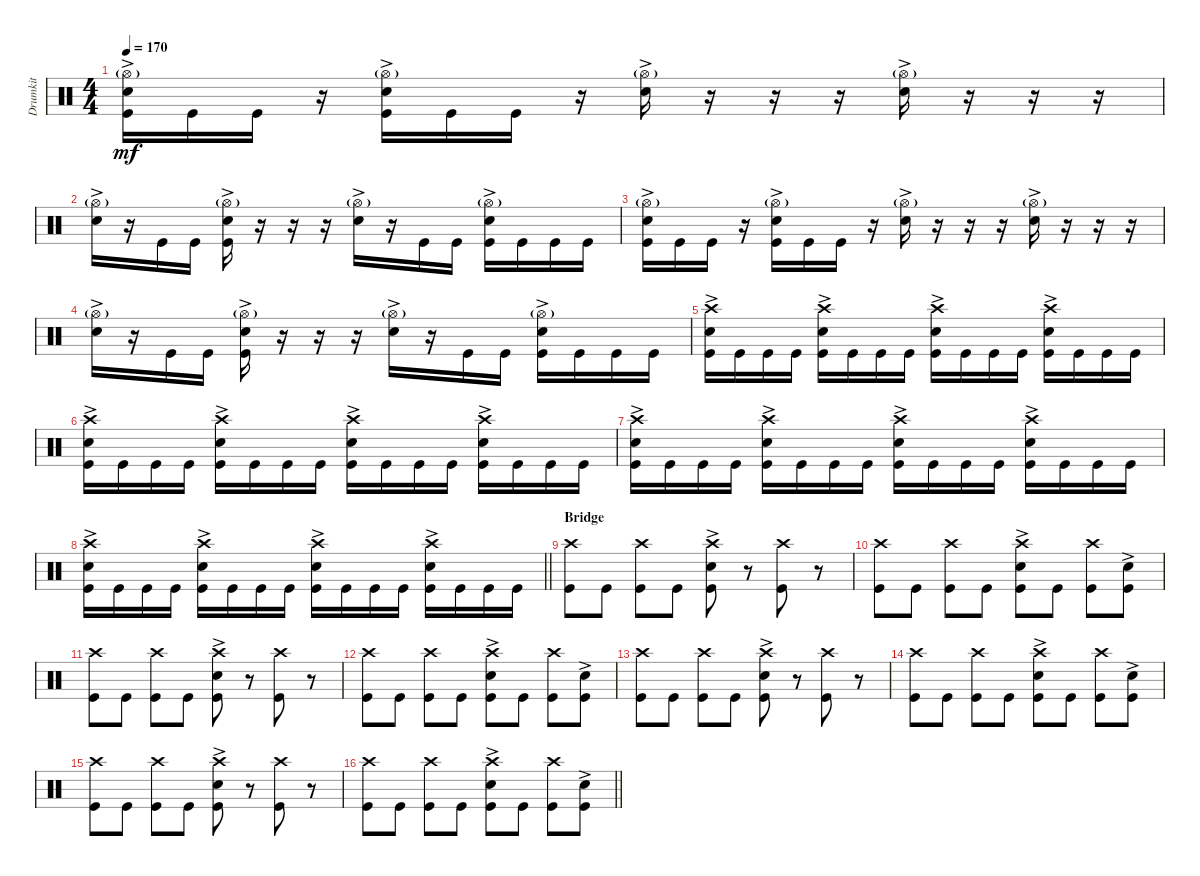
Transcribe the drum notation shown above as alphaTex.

\track ("Drumkit" "Drumkit") {instrument percussion}
\staff {score}
\articulation defaults
\ts (4 4)
\tempo 170
\clef neutral
\ks c
("Snare (hit) 2"{ac} "Kick (hit)" "Hi-Hat (open)"{g}).16{dy mf} "Kick (hit)".16 "Kick (hit)".16 r.16 ("Snare (hit) 2"{ac} "Kick (hit)" "Hi-Hat (open)"{g}).16 "Kick (hit)".16 "Kick (hit)".16 r.16 ("Snare (hit) 2"{ac} "Hi-Hat (open)"{g}).16 r.16 r.16 r.16 ("Snare (hit) 2"{ac} "Hi-Hat (open)"{g}).16 r.16 r.16 r.16 |
("Snare (hit) 2"{ac} "Hi-Hat (open)"{g}).16 r.16 "Kick (hit)".16 "Kick (hit)".16 ("Snare (hit) 2"{ac} "Kick (hit)" "Hi-Hat (open)"{g}).16 r.16 r.16 r.16 ("Snare (hit) 2"{ac} "Hi-Hat (open)"{g}).16 r.16 "Kick (hit)".16 "Kick (hit)".16 ("Snare (hit) 2"{ac} "Kick (hit)" "Hi-Hat (open)"{g}).16 "Kick (hit)".16 "Kick (hit)".16 "Kick (hit)".16 |
("Snare (hit) 2"{ac} "Kick (hit)" "Hi-Hat (open)"{g}).16 "Kick (hit)".16 "Kick (hit)".16 r.16 ("Snare (hit) 2"{ac} "Kick (hit)" "Hi-Hat (open)"{g}).16 "Kick (hit)".16 "Kick (hit)".16 r.16 ("Snare (hit) 2"{ac} "Hi-Hat (open)"{g}).16 r.16 r.16 r.16 ("Snare (hit) 2"{ac} "Hi-Hat (open)"{g}).16 r.16 r.16 r.16 |
("Snare (hit) 2"{ac} "Hi-Hat (open)"{g}).16 r.16 "Kick (hit)".16 "Kick (hit)".16 ("Snare (hit) 2"{ac} "Kick (hit)" "Hi-Hat (open)"{g}).16 r.16 r.16 r.16 ("Snare (hit) 2"{ac} "Hi-Hat (open)"{g}).16 r.16 "Kick (hit)".16 "Kick (hit)".16 ("Snare (hit) 2"{ac} "Kick (hit)" "Hi-Hat (open)"{g}).16 "Kick (hit)".16 "Kick (hit)".16 "Kick (hit)".16 |
("Snare (hit) 2"{ac} "Kick (hit)" "Crash high (hit)").16 "Kick (hit)".16 "Kick (hit)".16 "Kick (hit)".16 ("Snare (hit) 2"{ac} "Kick (hit)" "Crash high (hit)").16 "Kick (hit)".16 "Kick (hit)".16 "Kick (hit)".16 ("Snare (hit) 2"{ac} "Kick (hit)" "Crash high (hit)").16 "Kick (hit)".16 "Kick (hit)".16 "Kick (hit)".16 ("Snare (hit) 2"{ac} "Kick (hit)" "Crash high (hit)").16 "Kick (hit)".16 "Kick (hit)".16 "Kick (hit)".16 |
("Snare (hit) 2"{ac} "Kick (hit)" "Crash high (hit)").16 "Kick (hit)".16 "Kick (hit)".16 "Kick (hit)".16 ("Snare (hit) 2"{ac} "Kick (hit)" "Crash high (hit)").16 "Kick (hit)".16 "Kick (hit)".16 "Kick (hit)".16 ("Snare (hit) 2"{ac} "Kick (hit)" "Crash high (hit)").16 "Kick (hit)".16 "Kick (hit)".16 "Kick (hit)".16 ("Snare (hit) 2"{ac} "Kick (hit)" "Crash high (hit)").16 "Kick (hit)".16 "Kick (hit)".16 "Kick (hit)".16 |
("Snare (hit) 2"{ac} "Kick (hit)" "Crash high (hit)").16 "Kick (hit)".16 "Kick (hit)".16 "Kick (hit)".16 ("Snare (hit) 2"{ac} "Kick (hit)" "Crash high (hit)").16 "Kick (hit)".16 "Kick (hit)".16 "Kick (hit)".16 ("Snare (hit) 2"{ac} "Kick (hit)" "Crash high (hit)").16 "Kick (hit)".16 "Kick (hit)".16 "Kick (hit)".16 ("Snare (hit) 2"{ac} "Kick (hit)" "Crash high (hit)").16 "Kick (hit)".16 "Kick (hit)".16 "Kick (hit)".16 |
\barLineRight lightlight
("Snare (hit) 2"{ac} "Kick (hit)" "Crash high (hit)").16 "Kick (hit)".16 "Kick (hit)".16 "Kick (hit)".16 ("Snare (hit) 2"{ac} "Kick (hit)" "Crash high (hit)").16 "Kick (hit)".16 "Kick (hit)".16 "Kick (hit)".16 ("Snare (hit) 2"{ac} "Kick (hit)" "Crash high (hit)").16 "Kick (hit)".16 "Kick (hit)".16 "Kick (hit)".16 ("Snare (hit) 2"{ac} "Kick (hit)" "Crash high (hit)").16 "Kick (hit)".16 "Kick (hit)".16 "Kick (hit)".16 |
\section ("" "Bridge")
("Kick (hit)" "Crash high (hit)").8 "Kick (hit)".8 ("Kick (hit)" "Crash high (hit)").8 "Kick (hit)".8 ("Kick (hit)" "Snare (hit) 2"{ac} "Crash high (hit)").8 r.8 ("Kick (hit)" "Crash high (hit)").8 r.8 |
("Kick (hit)" "Crash high (hit)").8 "Kick (hit)".8 ("Kick (hit)" "Crash high (hit)").8 "Kick (hit)".8 ("Kick (hit)" "Snare (hit) 2"{ac} "Crash high (hit)").8 "Kick (hit)".8 ("Kick (hit)" "Crash high (hit)").8 ("Kick (hit)" "Snare (hit) 2"{ac}).8 |
("Kick (hit)" "Crash high (hit)").8 "Kick (hit)".8 ("Kick (hit)" "Crash high (hit)").8 "Kick (hit)".8 ("Kick (hit)" "Snare (hit) 2"{ac} "Crash high (hit)").8 r.8 ("Kick (hit)" "Crash high (hit)").8 r.8 |
("Kick (hit)" "Crash high (hit)").8 "Kick (hit)".8 ("Kick (hit)" "Crash high (hit)").8 "Kick (hit)".8 ("Kick (hit)" "Snare (hit) 2"{ac} "Crash high (hit)").8 "Kick (hit)".8 ("Kick (hit)" "Crash high (hit)").8 ("Kick (hit)" "Snare (hit) 2"{ac}).8 |
("Kick (hit)" "Crash high (hit)").8 "Kick (hit)".8 ("Kick (hit)" "Crash high (hit)").8 "Kick (hit)".8 ("Kick (hit)" "Snare (hit) 2"{ac} "Crash high (hit)").8 r.8 ("Kick (hit)" "Crash high (hit)").8 r.8 |
("Kick (hit)" "Crash high (hit)").8 "Kick (hit)".8 ("Kick (hit)" "Crash high (hit)").8 "Kick (hit)".8 ("Kick (hit)" "Snare (hit) 2"{ac} "Crash high (hit)").8 "Kick (hit)".8 ("Kick (hit)" "Crash high (hit)").8 ("Kick (hit)" "Snare (hit) 2"{ac}).8 |
("Kick (hit)" "Crash high (hit)").8 "Kick (hit)".8 ("Kick (hit)" "Crash high (hit)").8 "Kick (hit)".8 ("Kick (hit)" "Snare (hit) 2"{ac} "Crash high (hit)").8 r.8 ("Kick (hit)" "Crash high (hit)").8 r.8 |
\barLineRight lightlight
("Kick (hit)" "Crash high (hit)").8 "Kick (hit)".8 ("Kick (hit)" "Crash high (hit)").8 "Kick (hit)".8 ("Kick (hit)" "Snare (hit) 2"{ac} "Crash high (hit)").8 "Kick (hit)".8 ("Kick (hit)" "Crash high (hit)").8 ("Kick (hit)" "Snare (hit) 2"{ac}).8
